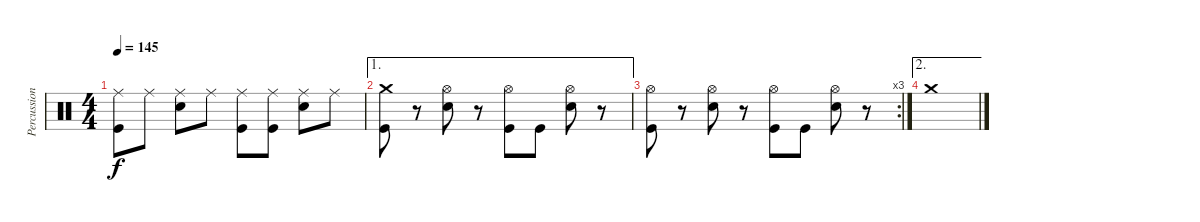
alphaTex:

\track ("Percussions" "Percussion") {instrument percussion}
\staff {score}
\articulation defaults
\ts (4 4)
\tempo 145
\clef neutral
\ks c
("Ride (middle)" "Kick (hit)").8{dy f} "Ride (middle)".8 ("Ride (middle)" "Electric Snare (hit)").8 "Ride (middle)".8 ("Ride (middle)" "Kick (hit)").8 ("Ride (middle)" "Kick (hit)").8 ("Ride (middle)" "Electric Snare (hit)").8 "Ride (middle)".8 |
\ae 1
("Crash medium (hit)" "Kick (hit)").8 r.8 ("Hi-Hat (open)" "Electric Snare (hit)").8 r.8 ("Hi-Hat (open)" "Kick (hit)").8 "Kick (hit)".8 ("Hi-Hat (open)" "Electric Snare (hit)").8 r.8 |
\rc 3
("Hi-Hat (open)" "Kick (hit)").8 r.8 ("Hi-Hat (open)" "Electric Snare (hit)").8 r.8 ("Hi-Hat (open)" "Kick (hit)").8 "Kick (hit)".8 ("Hi-Hat (open)" "Electric Snare (hit)").8 r.8 |
\ae 2 "Crash medium (hit)".1
